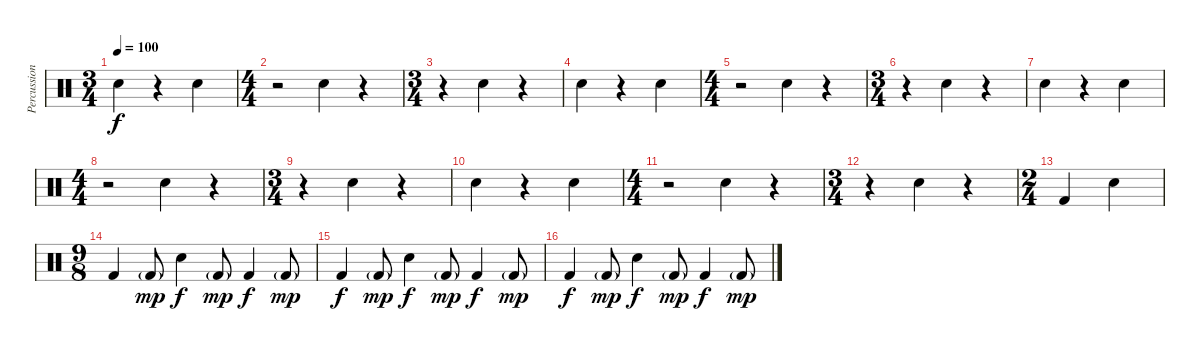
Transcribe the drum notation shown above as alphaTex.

\track ("Percussion" "Percussion") {mute instrument percussion}
\staff {score}
\articulation defaults
\ts (3 4)
\tempo 100
\clef neutral
\ks c "Electric Snare (hit)".4{dy f}
r.4 "Electric Snare (hit)".4 |
\ts (4 4)
r.2 "Electric Snare (hit)".4 r.4 |
\ts (3 4)
r.4 "Electric Snare (hit)".4 r.4 |
"Electric Snare (hit)".4 r.4 "Electric Snare (hit)".4 |
\ts (4 4)
r.2 "Electric Snare (hit)".4 r.4 |
\ts (3 4)
r.4 "Electric Snare (hit)".4 r.4 |
"Electric Snare (hit)".4 r.4 "Electric Snare (hit)".4 |
\ts (4 4)
r.2 "Electric Snare (hit)".4 r.4 |
\ts (3 4)
r.4 "Electric Snare (hit)".4 r.4 |
"Electric Snare (hit)".4 r.4 "Electric Snare (hit)".4 |
\ts (4 4)
r.2 "Electric Snare (hit)".4 r.4 |
\ts (3 4)
r.4 "Electric Snare (hit)".4 r.4 |
\ts (2 4)
"Kick (hit) 2".4 "Electric Snare (hit)".4 |
\ts (9 8)
"Kick (hit) 2".4 "Kick (hit) 2"{g}.8{dy mp} "Electric Snare (hit)".4{dy f} "Kick (hit) 2"{g}.8{dy mp} "Kick (hit) 2".4{dy f} "Kick (hit) 2"{g}.8{dy mp} |
"Kick (hit) 2".4{dy f} "Kick (hit) 2"{g}.8{dy mp} "Electric Snare (hit)".4{dy f} "Kick (hit) 2"{g}.8{dy mp} "Kick (hit) 2".4{dy f} "Kick (hit) 2"{g}.8{dy mp} |
"Kick (hit) 2".4{dy f} "Kick (hit) 2"{g}.8{dy mp} "Electric Snare (hit)".4{dy f} "Kick (hit) 2"{g}.8{dy mp} "Kick (hit) 2".4{dy f} "Kick (hit) 2"{g}.8{dy mp}
